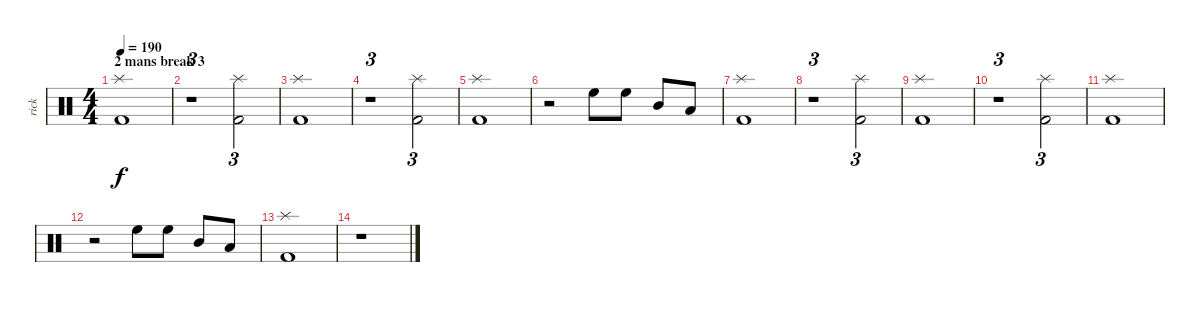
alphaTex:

\track ("rick" "rick") {instrument percussion}
\staff {score}
\articulation defaults
\ts (4 4)
\section ("" "2 mans break 3")
\tempo 190
\clef neutral
\ks c
("Splash (hit)" "Kick (hit) 2").1{dy f} |
r.1{tu (3 2)} ("Splash (hit)" "Kick (hit) 2").2{tu (3 2)} |
("Splash (hit)" "Kick (hit) 2").1 |
r.1{tu (3 2)} ("Splash (hit)" "Kick (hit) 2").2{tu (3 2)} |
("Splash (hit)" "Kick (hit) 2").1 |
r.2 "High Floor Tom (hit)".8 "High Floor Tom (hit)".8 "Mid Tom (hit)".8 "Low Floor Tom (hit)".8 |
("Splash (hit)" "Kick (hit) 2").1 |
r.1{tu (3 2)} ("Splash (hit)" "Kick (hit) 2").2{tu (3 2)} |
("Splash (hit)" "Kick (hit) 2").1 |
r.1{tu (3 2)} ("Splash (hit)" "Kick (hit) 2").2{tu (3 2)} |
("Splash (hit)" "Kick (hit) 2").1 |
r.2 "High Floor Tom (hit)".8 "High Floor Tom (hit)".8 "Mid Tom (hit)".8 "Low Floor Tom (hit)".8 |
("Splash (hit)" "Kick (hit) 2").1 |
r.1
